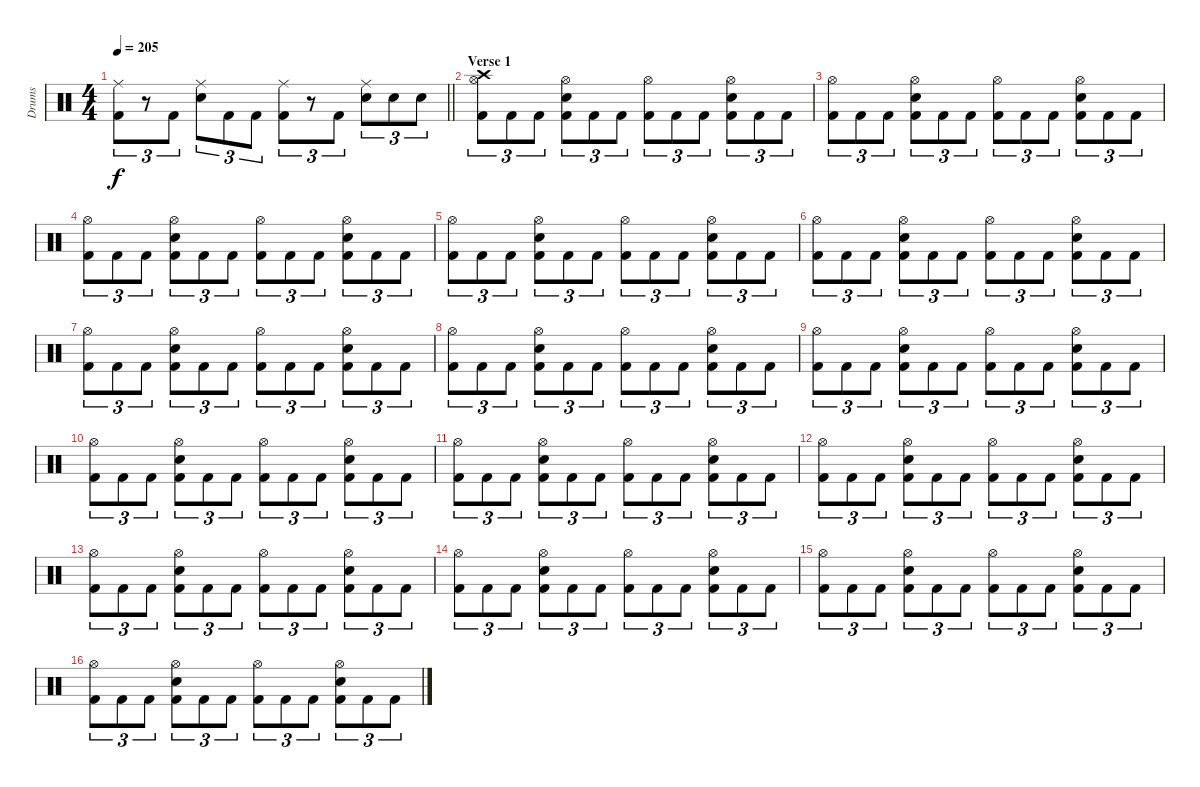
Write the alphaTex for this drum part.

\track ("Drums" "Drums") {instrument percussion}
\staff {score}
\articulation defaults
\ts (4 4)
\tempo 205
\clef neutral
\barLineRight lightlight
\ks c
("Ride (middle)" "Kick (hit) 2").8{tu (3 2) dy f} r.8{tu (3 2)} "Kick (hit) 2".8{tu (3 2)} ("Ride (middle)" "Snare (hit) 2").8{tu (3 2)} "Kick (hit) 2".8{tu (3 2)} "Kick (hit) 2".8{tu (3 2)} ("Ride (middle)" "Kick (hit) 2").8{tu (3 2)} r.8{tu (3 2)} "Kick (hit) 2".8{tu (3 2)} ("Ride (middle)" "Snare (hit) 2").8{tu (3 2)} "Snare (hit) 2".8{tu (3 2)} "Snare (hit) 2".8{tu (3 2)} |
\section ("" "Verse 1")
("Crash high (hit)" "Hi-Hat (open)" "Kick (hit) 2").8{tu (3 2)} "Kick (hit) 2".8{tu (3 2)} "Kick (hit) 2".8{tu (3 2)} ("Hi-Hat (open)" "Snare (hit) 2" "Kick (hit) 2").8{tu (3 2)} "Kick (hit) 2".8{tu (3 2)} "Kick (hit) 2".8{tu (3 2)} ("Hi-Hat (open)" "Kick (hit) 2").8{tu (3 2)} "Kick (hit) 2".8{tu (3 2)} "Kick (hit) 2".8{tu (3 2)} ("Hi-Hat (open)" "Snare (hit) 2" "Kick (hit) 2").8{tu (3 2)} "Kick (hit) 2".8{tu (3 2)} "Kick (hit) 2".8{tu (3 2)} |
("Hi-Hat (open)" "Kick (hit) 2").8{tu (3 2)} "Kick (hit) 2".8{tu (3 2)} "Kick (hit) 2".8{tu (3 2)} ("Hi-Hat (open)" "Snare (hit) 2" "Kick (hit) 2").8{tu (3 2)} "Kick (hit) 2".8{tu (3 2)} "Kick (hit) 2".8{tu (3 2)} ("Hi-Hat (open)" "Kick (hit) 2").8{tu (3 2)} "Kick (hit) 2".8{tu (3 2)} "Kick (hit) 2".8{tu (3 2)} ("Hi-Hat (open)" "Snare (hit) 2" "Kick (hit) 2").8{tu (3 2)} "Kick (hit) 2".8{tu (3 2)} "Kick (hit) 2".8{tu (3 2)} |
("Hi-Hat (open)" "Kick (hit) 2").8{tu (3 2)} "Kick (hit) 2".8{tu (3 2)} "Kick (hit) 2".8{tu (3 2)} ("Hi-Hat (open)" "Snare (hit) 2" "Kick (hit) 2").8{tu (3 2)} "Kick (hit) 2".8{tu (3 2)} "Kick (hit) 2".8{tu (3 2)} ("Hi-Hat (open)" "Kick (hit) 2").8{tu (3 2)} "Kick (hit) 2".8{tu (3 2)} "Kick (hit) 2".8{tu (3 2)} ("Hi-Hat (open)" "Snare (hit) 2" "Kick (hit) 2").8{tu (3 2)} "Kick (hit) 2".8{tu (3 2)} "Kick (hit) 2".8{tu (3 2)} |
("Hi-Hat (open)" "Kick (hit) 2").8{tu (3 2)} "Kick (hit) 2".8{tu (3 2)} "Kick (hit) 2".8{tu (3 2)} ("Hi-Hat (open)" "Snare (hit) 2" "Kick (hit) 2").8{tu (3 2)} "Kick (hit) 2".8{tu (3 2)} "Kick (hit) 2".8{tu (3 2)} ("Hi-Hat (open)" "Kick (hit) 2").8{tu (3 2)} "Kick (hit) 2".8{tu (3 2)} "Kick (hit) 2".8{tu (3 2)} ("Hi-Hat (open)" "Snare (hit) 2" "Kick (hit) 2").8{tu (3 2)} "Kick (hit) 2".8{tu (3 2)} "Kick (hit) 2".8{tu (3 2)} |
("Hi-Hat (open)" "Kick (hit) 2").8{tu (3 2)} "Kick (hit) 2".8{tu (3 2)} "Kick (hit) 2".8{tu (3 2)} ("Hi-Hat (open)" "Snare (hit) 2" "Kick (hit) 2").8{tu (3 2)} "Kick (hit) 2".8{tu (3 2)} "Kick (hit) 2".8{tu (3 2)} ("Hi-Hat (open)" "Kick (hit) 2").8{tu (3 2)} "Kick (hit) 2".8{tu (3 2)} "Kick (hit) 2".8{tu (3 2)} ("Hi-Hat (open)" "Snare (hit) 2" "Kick (hit) 2").8{tu (3 2)} "Kick (hit) 2".8{tu (3 2)} "Kick (hit) 2".8{tu (3 2)} |
("Hi-Hat (open)" "Kick (hit) 2").8{tu (3 2)} "Kick (hit) 2".8{tu (3 2)} "Kick (hit) 2".8{tu (3 2)} ("Hi-Hat (open)" "Snare (hit) 2" "Kick (hit) 2").8{tu (3 2)} "Kick (hit) 2".8{tu (3 2)} "Kick (hit) 2".8{tu (3 2)} ("Hi-Hat (open)" "Kick (hit) 2").8{tu (3 2)} "Kick (hit) 2".8{tu (3 2)} "Kick (hit) 2".8{tu (3 2)} ("Hi-Hat (open)" "Snare (hit) 2" "Kick (hit) 2").8{tu (3 2)} "Kick (hit) 2".8{tu (3 2)} "Kick (hit) 2".8{tu (3 2)} |
("Hi-Hat (open)" "Kick (hit) 2").8{tu (3 2)} "Kick (hit) 2".8{tu (3 2)} "Kick (hit) 2".8{tu (3 2)} ("Hi-Hat (open)" "Snare (hit) 2" "Kick (hit) 2").8{tu (3 2)} "Kick (hit) 2".8{tu (3 2)} "Kick (hit) 2".8{tu (3 2)} ("Hi-Hat (open)" "Kick (hit) 2").8{tu (3 2)} "Kick (hit) 2".8{tu (3 2)} "Kick (hit) 2".8{tu (3 2)} ("Hi-Hat (open)" "Snare (hit) 2" "Kick (hit) 2").8{tu (3 2)} "Kick (hit) 2".8{tu (3 2)} "Kick (hit) 2".8{tu (3 2)} |
("Hi-Hat (open)" "Kick (hit) 2").8{tu (3 2)} "Kick (hit) 2".8{tu (3 2)} "Kick (hit) 2".8{tu (3 2)} ("Hi-Hat (open)" "Snare (hit) 2" "Kick (hit) 2").8{tu (3 2)} "Kick (hit) 2".8{tu (3 2)} "Kick (hit) 2".8{tu (3 2)} ("Hi-Hat (open)" "Kick (hit) 2").8{tu (3 2)} "Kick (hit) 2".8{tu (3 2)} "Kick (hit) 2".8{tu (3 2)} ("Hi-Hat (open)" "Snare (hit) 2" "Kick (hit) 2").8{tu (3 2)} "Kick (hit) 2".8{tu (3 2)} "Kick (hit) 2".8{tu (3 2)} |
("Hi-Hat (open)" "Kick (hit) 2").8{tu (3 2)} "Kick (hit) 2".8{tu (3 2)} "Kick (hit) 2".8{tu (3 2)} ("Hi-Hat (open)" "Snare (hit) 2" "Kick (hit) 2").8{tu (3 2)} "Kick (hit) 2".8{tu (3 2)} "Kick (hit) 2".8{tu (3 2)} ("Hi-Hat (open)" "Kick (hit) 2").8{tu (3 2)} "Kick (hit) 2".8{tu (3 2)} "Kick (hit) 2".8{tu (3 2)} ("Hi-Hat (open)" "Snare (hit) 2" "Kick (hit) 2").8{tu (3 2)} "Kick (hit) 2".8{tu (3 2)} "Kick (hit) 2".8{tu (3 2)} |
("Hi-Hat (open)" "Kick (hit) 2").8{tu (3 2)} "Kick (hit) 2".8{tu (3 2)} "Kick (hit) 2".8{tu (3 2)} ("Hi-Hat (open)" "Snare (hit) 2" "Kick (hit) 2").8{tu (3 2)} "Kick (hit) 2".8{tu (3 2)} "Kick (hit) 2".8{tu (3 2)} ("Hi-Hat (open)" "Kick (hit) 2").8{tu (3 2)} "Kick (hit) 2".8{tu (3 2)} "Kick (hit) 2".8{tu (3 2)} ("Hi-Hat (open)" "Snare (hit) 2" "Kick (hit) 2").8{tu (3 2)} "Kick (hit) 2".8{tu (3 2)} "Kick (hit) 2".8{tu (3 2)} |
("Hi-Hat (open)" "Kick (hit) 2").8{tu (3 2)} "Kick (hit) 2".8{tu (3 2)} "Kick (hit) 2".8{tu (3 2)} ("Hi-Hat (open)" "Snare (hit) 2" "Kick (hit) 2").8{tu (3 2)} "Kick (hit) 2".8{tu (3 2)} "Kick (hit) 2".8{tu (3 2)} ("Hi-Hat (open)" "Kick (hit) 2").8{tu (3 2)} "Kick (hit) 2".8{tu (3 2)} "Kick (hit) 2".8{tu (3 2)} ("Hi-Hat (open)" "Snare (hit) 2" "Kick (hit) 2").8{tu (3 2)} "Kick (hit) 2".8{tu (3 2)} "Kick (hit) 2".8{tu (3 2)} |
("Hi-Hat (open)" "Kick (hit) 2").8{tu (3 2)} "Kick (hit) 2".8{tu (3 2)} "Kick (hit) 2".8{tu (3 2)} ("Hi-Hat (open)" "Snare (hit) 2" "Kick (hit) 2").8{tu (3 2)} "Kick (hit) 2".8{tu (3 2)} "Kick (hit) 2".8{tu (3 2)} ("Hi-Hat (open)" "Kick (hit) 2").8{tu (3 2)} "Kick (hit) 2".8{tu (3 2)} "Kick (hit) 2".8{tu (3 2)} ("Hi-Hat (open)" "Snare (hit) 2" "Kick (hit) 2").8{tu (3 2)} "Kick (hit) 2".8{tu (3 2)} "Kick (hit) 2".8{tu (3 2)} |
("Hi-Hat (open)" "Kick (hit) 2").8{tu (3 2)} "Kick (hit) 2".8{tu (3 2)} "Kick (hit) 2".8{tu (3 2)} ("Hi-Hat (open)" "Snare (hit) 2" "Kick (hit) 2").8{tu (3 2)} "Kick (hit) 2".8{tu (3 2)} "Kick (hit) 2".8{tu (3 2)} ("Hi-Hat (open)" "Kick (hit) 2").8{tu (3 2)} "Kick (hit) 2".8{tu (3 2)} "Kick (hit) 2".8{tu (3 2)} ("Hi-Hat (open)" "Snare (hit) 2" "Kick (hit) 2").8{tu (3 2)} "Kick (hit) 2".8{tu (3 2)} "Kick (hit) 2".8{tu (3 2)} |
("Hi-Hat (open)" "Kick (hit) 2").8{tu (3 2)} "Kick (hit) 2".8{tu (3 2)} "Kick (hit) 2".8{tu (3 2)} ("Hi-Hat (open)" "Snare (hit) 2" "Kick (hit) 2").8{tu (3 2)} "Kick (hit) 2".8{tu (3 2)} "Kick (hit) 2".8{tu (3 2)} ("Hi-Hat (open)" "Kick (hit) 2").8{tu (3 2)} "Kick (hit) 2".8{tu (3 2)} "Kick (hit) 2".8{tu (3 2)} ("Hi-Hat (open)" "Snare (hit) 2" "Kick (hit) 2").8{tu (3 2)} "Kick (hit) 2".8{tu (3 2)} "Kick (hit) 2".8{tu (3 2)} |
("Hi-Hat (open)" "Kick (hit) 2").8{tu (3 2)} "Kick (hit) 2".8{tu (3 2)} "Kick (hit) 2".8{tu (3 2)} ("Hi-Hat (open)" "Snare (hit) 2" "Kick (hit) 2").8{tu (3 2)} "Kick (hit) 2".8{tu (3 2)} "Kick (hit) 2".8{tu (3 2)} ("Hi-Hat (open)" "Kick (hit) 2").8{tu (3 2)} "Kick (hit) 2".8{tu (3 2)} "Kick (hit) 2".8{tu (3 2)} ("Hi-Hat (open)" "Snare (hit) 2" "Kick (hit) 2").8{tu (3 2)} "Kick (hit) 2".8{tu (3 2)} "Kick (hit) 2".8{tu (3 2)}
